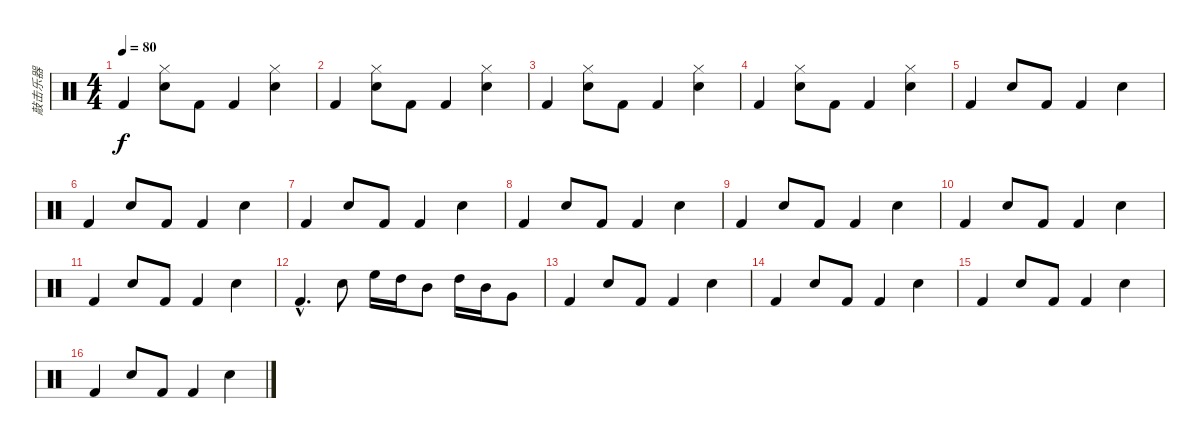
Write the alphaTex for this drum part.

\track ("敲击乐器" "敲击乐器") {instrument percussion}
\staff {score}
\articulation defaults
\ts (4 4)
\tempo 80
\clef neutral
\ks c "Kick (hit) 2".4{dy f}
("Hand Clap (hit)" "Hi-Hat (closed)").8 "Kick (hit) 2".8 "Kick (hit) 2".4 ("Hand Clap (hit)" "Hi-Hat (closed)").4 |
"Kick (hit) 2".4 ("Hand Clap (hit)" "Hi-Hat (closed)").8 "Kick (hit) 2".8 "Kick (hit) 2".4 ("Hand Clap (hit)" "Hi-Hat (closed)").4 |
"Kick (hit) 2".4 ("Hand Clap (hit)" "Hi-Hat (closed)").8 "Kick (hit) 2".8 "Kick (hit) 2".4 ("Hand Clap (hit)" "Hi-Hat (closed)").4 |
"Kick (hit) 2".4 ("Hand Clap (hit)" "Hi-Hat (closed)").8 "Kick (hit) 2".8 "Kick (hit) 2".4 ("Hand Clap (hit)" "Hi-Hat (closed)").4 |
"Kick (hit) 2".4 "Hand Clap (hit)".8 "Kick (hit) 2".8 "Kick (hit) 2".4 "Hand Clap (hit)".4 |
"Kick (hit) 2".4 "Hand Clap (hit)".8 "Kick (hit) 2".8 "Kick (hit) 2".4 "Hand Clap (hit)".4 |
"Kick (hit) 2".4 "Hand Clap (hit)".8 "Kick (hit) 2".8 "Kick (hit) 2".4 "Hand Clap (hit)".4 |
"Kick (hit) 2".4 "Hand Clap (hit)".8 "Kick (hit) 2".8 "Kick (hit) 2".4 "Hand Clap (hit)".4 |
"Kick (hit) 2".4 "Hand Clap (hit)".8 "Kick (hit) 2".8 "Kick (hit) 2".4 "Hand Clap (hit)".4 |
"Kick (hit) 2".4 "Hand Clap (hit)".8 "Kick (hit) 2".8 "Kick (hit) 2".4 "Hand Clap (hit)".4 |
"Kick (hit) 2".4 "Hand Clap (hit)".8 "Kick (hit) 2".8 "Kick (hit) 2".4 "Hand Clap (hit)".4 |
"Kick (hit) 2"{hac}.4{d} "Hand Clap (hit)".8 "High Floor Tom (hit)".16 "High Tom (hit)".16 "Mid Tom (hit)".8 "High Tom (hit)".16 "Mid Tom (hit)".16 "Very Low Tom (hit)".8 |
"Kick (hit) 2".4 "Hand Clap (hit)".8 "Kick (hit) 2".8 "Kick (hit) 2".4 "Hand Clap (hit)".4 |
"Kick (hit) 2".4 "Hand Clap (hit)".8 "Kick (hit) 2".8 "Kick (hit) 2".4 "Hand Clap (hit)".4 |
"Kick (hit) 2".4 "Hand Clap (hit)".8 "Kick (hit) 2".8 "Kick (hit) 2".4 "Hand Clap (hit)".4 |
"Kick (hit) 2".4 "Hand Clap (hit)".8 "Kick (hit) 2".8 "Kick (hit) 2".4 "Hand Clap (hit)".4
